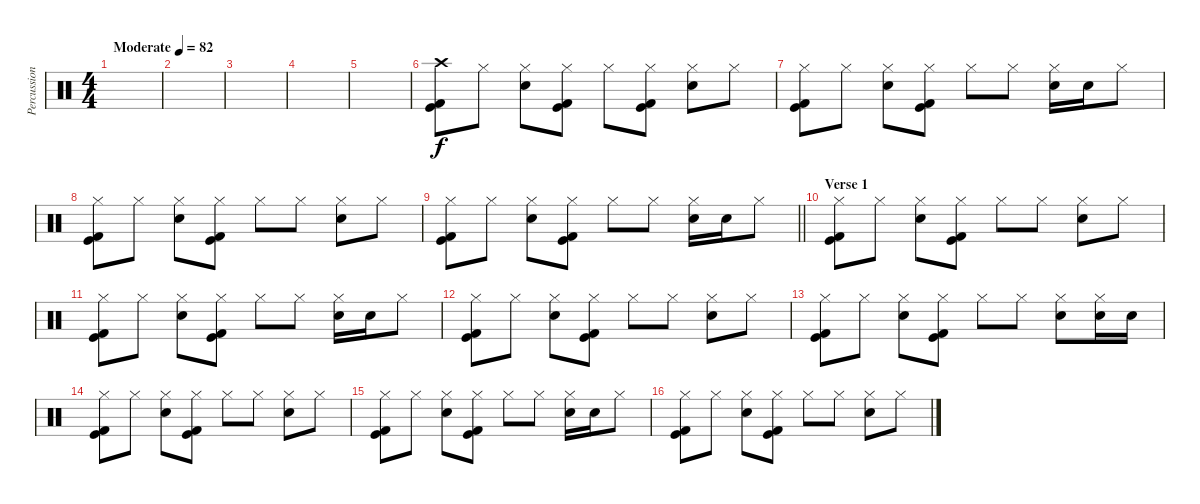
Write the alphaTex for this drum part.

\track ("Percussion" "Percussion") {instrument percussion}
\staff {score}
\articulation defaults
\ts (4 4)
\tempo (82 "Moderate")
\clef neutral
\ks c
|
|
|
|
|
("Crash high (hit)" "Kick (hit)" "Kick (hit) 2").8 "Hi-Hat (closed)".8 ("Hi-Hat (closed)" "Electric Snare (hit)").8 ("Hi-Hat (closed)" "Kick (hit)" "Kick (hit) 2").8 "Hi-Hat (closed)".8 ("Hi-Hat (closed)" "Kick (hit)" "Kick (hit) 2").8 ("Hi-Hat (closed)" "Electric Snare (hit)").8 "Hi-Hat (closed)".8 |
("Hi-Hat (closed)" "Kick (hit)" "Kick (hit) 2").8 "Hi-Hat (closed)".8 ("Hi-Hat (closed)" "Electric Snare (hit)").8 ("Hi-Hat (closed)" "Kick (hit)" "Kick (hit) 2").8 "Hi-Hat (closed)".8 "Hi-Hat (closed)".8 ("Hi-Hat (closed)" "Electric Snare (hit)").16 "Electric Snare (hit)".16 "Hi-Hat (closed)".8 |
("Hi-Hat (closed)" "Kick (hit)" "Kick (hit) 2").8 "Hi-Hat (closed)".8 ("Hi-Hat (closed)" "Electric Snare (hit)").8 ("Hi-Hat (closed)" "Kick (hit)" "Kick (hit) 2").8 "Hi-Hat (closed)".8 "Hi-Hat (closed)".8 ("Hi-Hat (closed)" "Electric Snare (hit)").8 "Hi-Hat (closed)".8 |
\barLineRight lightlight
("Hi-Hat (closed)" "Kick (hit)" "Kick (hit) 2").8 "Hi-Hat (closed)".8 ("Hi-Hat (closed)" "Electric Snare (hit)").8 ("Hi-Hat (closed)" "Kick (hit)" "Kick (hit) 2").8 "Hi-Hat (closed)".8 "Hi-Hat (closed)".8 ("Hi-Hat (closed)" "Electric Snare (hit)").16 "Electric Snare (hit)".16 "Hi-Hat (closed)".8 |
\section ("" "Verse 1")
("Hi-Hat (closed)" "Kick (hit)" "Kick (hit) 2").8 "Hi-Hat (closed)".8 ("Hi-Hat (closed)" "Electric Snare (hit)").8 ("Hi-Hat (closed)" "Kick (hit)" "Kick (hit) 2").8 "Hi-Hat (closed)".8 "Hi-Hat (closed)".8 ("Hi-Hat (closed)" "Electric Snare (hit)").8 "Hi-Hat (closed)".8 |
("Hi-Hat (closed)" "Kick (hit)" "Kick (hit) 2").8 "Hi-Hat (closed)".8 ("Hi-Hat (closed)" "Electric Snare (hit)").8 ("Hi-Hat (closed)" "Kick (hit)" "Kick (hit) 2").8 "Hi-Hat (closed)".8 "Hi-Hat (closed)".8 ("Hi-Hat (closed)" "Electric Snare (hit)").16 "Electric Snare (hit)".16 "Hi-Hat (closed)".8 |
("Hi-Hat (closed)" "Kick (hit)" "Kick (hit) 2").8 "Hi-Hat (closed)".8 ("Hi-Hat (closed)" "Electric Snare (hit)").8 ("Hi-Hat (closed)" "Kick (hit)" "Kick (hit) 2").8 "Hi-Hat (closed)".8 "Hi-Hat (closed)".8 ("Hi-Hat (closed)" "Electric Snare (hit)").8 "Hi-Hat (closed)".8 |
("Hi-Hat (closed)" "Kick (hit)" "Kick (hit) 2").8 "Hi-Hat (closed)".8 ("Hi-Hat (closed)" "Electric Snare (hit)").8 ("Hi-Hat (closed)" "Kick (hit)" "Kick (hit) 2").8 "Hi-Hat (closed)".8 "Hi-Hat (closed)".8 ("Hi-Hat (closed)" "Electric Snare (hit)").8 ("Hi-Hat (closed)" "Electric Snare (hit)").16 "Electric Snare (hit)".16 |
("Hi-Hat (closed)" "Kick (hit)" "Kick (hit) 2").8 "Hi-Hat (closed)".8 ("Hi-Hat (closed)" "Electric Snare (hit)").8 ("Hi-Hat (closed)" "Kick (hit)" "Kick (hit) 2").8 "Hi-Hat (closed)".8 "Hi-Hat (closed)".8 ("Hi-Hat (closed)" "Electric Snare (hit)").8 "Hi-Hat (closed)".8 |
("Hi-Hat (closed)" "Kick (hit)" "Kick (hit) 2").8 "Hi-Hat (closed)".8 ("Hi-Hat (closed)" "Electric Snare (hit)").8 ("Hi-Hat (closed)" "Kick (hit)" "Kick (hit) 2").8 "Hi-Hat (closed)".8 "Hi-Hat (closed)".8 ("Hi-Hat (closed)" "Electric Snare (hit)").16 "Electric Snare (hit)".16 "Hi-Hat (closed)".8 |
("Hi-Hat (closed)" "Kick (hit)" "Kick (hit) 2").8 "Hi-Hat (closed)".8 ("Hi-Hat (closed)" "Electric Snare (hit)").8 ("Hi-Hat (closed)" "Kick (hit)" "Kick (hit) 2").8 "Hi-Hat (closed)".8 "Hi-Hat (closed)".8 ("Hi-Hat (closed)" "Electric Snare (hit)").8 "Hi-Hat (closed)".8
